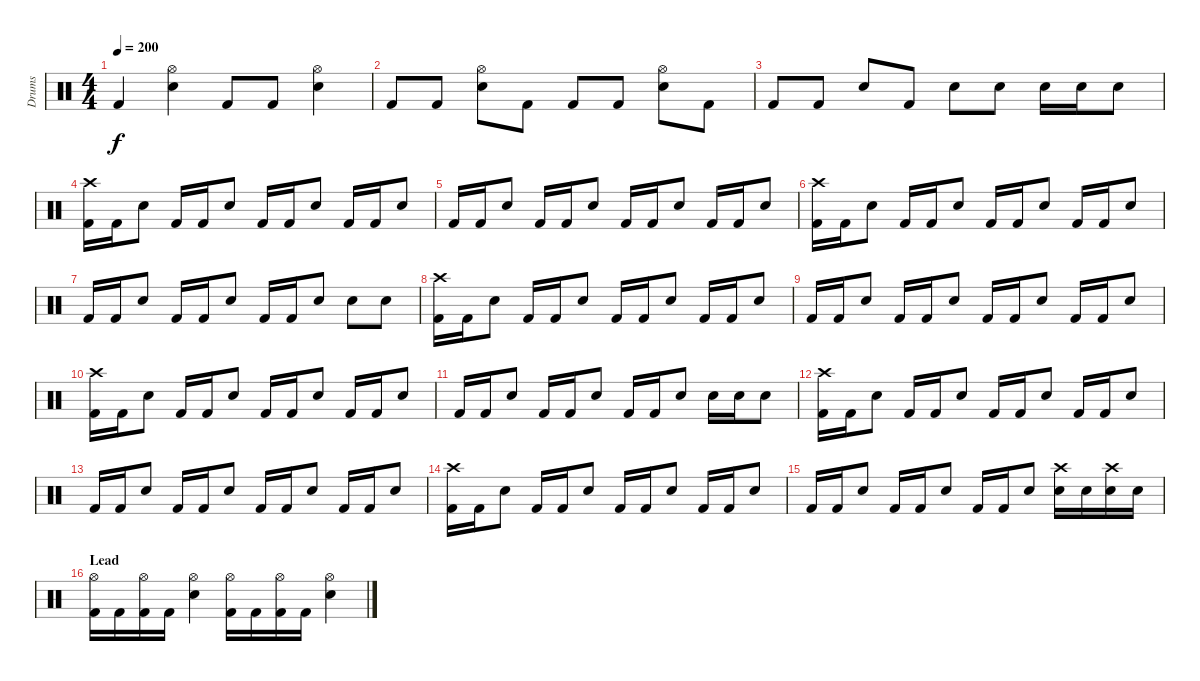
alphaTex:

\track ("Drums" "Drums") {instrument percussion}
\staff {score}
\articulation defaults
\ts (4 4)
\tempo 200
\clef neutral
\ks c "Kick (hit) 2".4{dy f}
("Hi-Hat (open)" "Snare (hit) 2").4 "Kick (hit) 2".8 "Kick (hit) 2".8 ("Hi-Hat (open)" "Snare (hit) 2").4 |
"Kick (hit) 2".8 "Kick (hit) 2".8 ("Hi-Hat (open)" "Snare (hit) 2").8 "Kick (hit) 2".8 "Kick (hit) 2".8 "Kick (hit) 2".8 ("Hi-Hat (open)" "Snare (hit) 2").8 "Kick (hit) 2".8 |
"Kick (hit) 2".8 "Kick (hit) 2".8 "Snare (hit) 2".8 "Kick (hit) 2".8 "Snare (hit) 2".8 "Snare (hit) 2".8 "Snare (hit) 2".16 "Snare (hit) 2".16 "Snare (hit) 2".8 |
("Crash high (hit)" "Kick (hit) 2").16 "Kick (hit) 2".16 "Snare (hit) 2".8 "Kick (hit) 2".16 "Kick (hit) 2".16 "Snare (hit) 2".8 "Kick (hit) 2".16 "Kick (hit) 2".16 "Snare (hit) 2".8 "Kick (hit) 2".16 "Kick (hit) 2".16 "Snare (hit) 2".8 |
"Kick (hit) 2".16 "Kick (hit) 2".16 "Snare (hit) 2".8 "Kick (hit) 2".16 "Kick (hit) 2".16 "Snare (hit) 2".8 "Kick (hit) 2".16 "Kick (hit) 2".16 "Snare (hit) 2".8 "Kick (hit) 2".16 "Kick (hit) 2".16 "Snare (hit) 2".8 |
("Crash high (hit)" "Kick (hit) 2").16 "Kick (hit) 2".16 "Snare (hit) 2".8 "Kick (hit) 2".16 "Kick (hit) 2".16 "Snare (hit) 2".8 "Kick (hit) 2".16 "Kick (hit) 2".16 "Snare (hit) 2".8 "Kick (hit) 2".16 "Kick (hit) 2".16 "Snare (hit) 2".8 |
"Kick (hit) 2".16 "Kick (hit) 2".16 "Snare (hit) 2".8 "Kick (hit) 2".16 "Kick (hit) 2".16 "Snare (hit) 2".8 "Kick (hit) 2".16 "Kick (hit) 2".16 "Snare (hit) 2".8 "Snare (hit) 2".8 "Snare (hit) 2".8 |
("Crash high (hit)" "Kick (hit) 2").16 "Kick (hit) 2".16 "Snare (hit) 2".8 "Kick (hit) 2".16 "Kick (hit) 2".16 "Snare (hit) 2".8 "Kick (hit) 2".16 "Kick (hit) 2".16 "Snare (hit) 2".8 "Kick (hit) 2".16 "Kick (hit) 2".16 "Snare (hit) 2".8 |
"Kick (hit) 2".16 "Kick (hit) 2".16 "Snare (hit) 2".8 "Kick (hit) 2".16 "Kick (hit) 2".16 "Snare (hit) 2".8 "Kick (hit) 2".16 "Kick (hit) 2".16 "Snare (hit) 2".8 "Kick (hit) 2".16 "Kick (hit) 2".16 "Snare (hit) 2".8 |
("Crash high (hit)" "Kick (hit) 2").16 "Kick (hit) 2".16 "Snare (hit) 2".8 "Kick (hit) 2".16 "Kick (hit) 2".16 "Snare (hit) 2".8 "Kick (hit) 2".16 "Kick (hit) 2".16 "Snare (hit) 2".8 "Kick (hit) 2".16 "Kick (hit) 2".16 "Snare (hit) 2".8 |
"Kick (hit) 2".16 "Kick (hit) 2".16 "Snare (hit) 2".8 "Kick (hit) 2".16 "Kick (hit) 2".16 "Snare (hit) 2".8 "Kick (hit) 2".16 "Kick (hit) 2".16 "Snare (hit) 2".8 "Snare (hit) 2".16 "Snare (hit) 2".16 "Snare (hit) 2".8 |
("Crash high (hit)" "Kick (hit) 2").16 "Kick (hit) 2".16 "Snare (hit) 2".8 "Kick (hit) 2".16 "Kick (hit) 2".16 "Snare (hit) 2".8 "Kick (hit) 2".16 "Kick (hit) 2".16 "Snare (hit) 2".8 "Kick (hit) 2".16 "Kick (hit) 2".16 "Snare (hit) 2".8 |
"Kick (hit) 2".16 "Kick (hit) 2".16 "Snare (hit) 2".8 "Kick (hit) 2".16 "Kick (hit) 2".16 "Snare (hit) 2".8 "Kick (hit) 2".16 "Kick (hit) 2".16 "Snare (hit) 2".8 "Kick (hit) 2".16 "Kick (hit) 2".16 "Snare (hit) 2".8 |
("Crash high (hit)" "Kick (hit) 2").16 "Kick (hit) 2".16 "Snare (hit) 2".8 "Kick (hit) 2".16 "Kick (hit) 2".16 "Snare (hit) 2".8 "Kick (hit) 2".16 "Kick (hit) 2".16 "Snare (hit) 2".8 "Kick (hit) 2".16 "Kick (hit) 2".16 "Snare (hit) 2".8 |
"Kick (hit) 2".16 "Kick (hit) 2".16 "Snare (hit) 2".8 "Kick (hit) 2".16 "Kick (hit) 2".16 "Snare (hit) 2".8 "Kick (hit) 2".16 "Kick (hit) 2".16 "Snare (hit) 2".8 ("Crash high (hit)" "Snare (hit) 2").16 "Snare (hit) 2".16 ("Crash high (hit)" "Snare (hit) 2").16 "Snare (hit) 2".16 |
\section ("" "Lead")
("Hi-Hat (open)" "Kick (hit) 2").16 "Kick (hit) 2".16 ("Hi-Hat (open)" "Kick (hit) 2").16 "Kick (hit) 2".16 ("Hi-Hat (open)" "Snare (hit) 2").4 ("Hi-Hat (open)" "Kick (hit) 2").16 "Kick (hit) 2".16 ("Hi-Hat (open)" "Kick (hit) 2").16 "Kick (hit) 2".16 ("Hi-Hat (open)" "Snare (hit) 2").4
